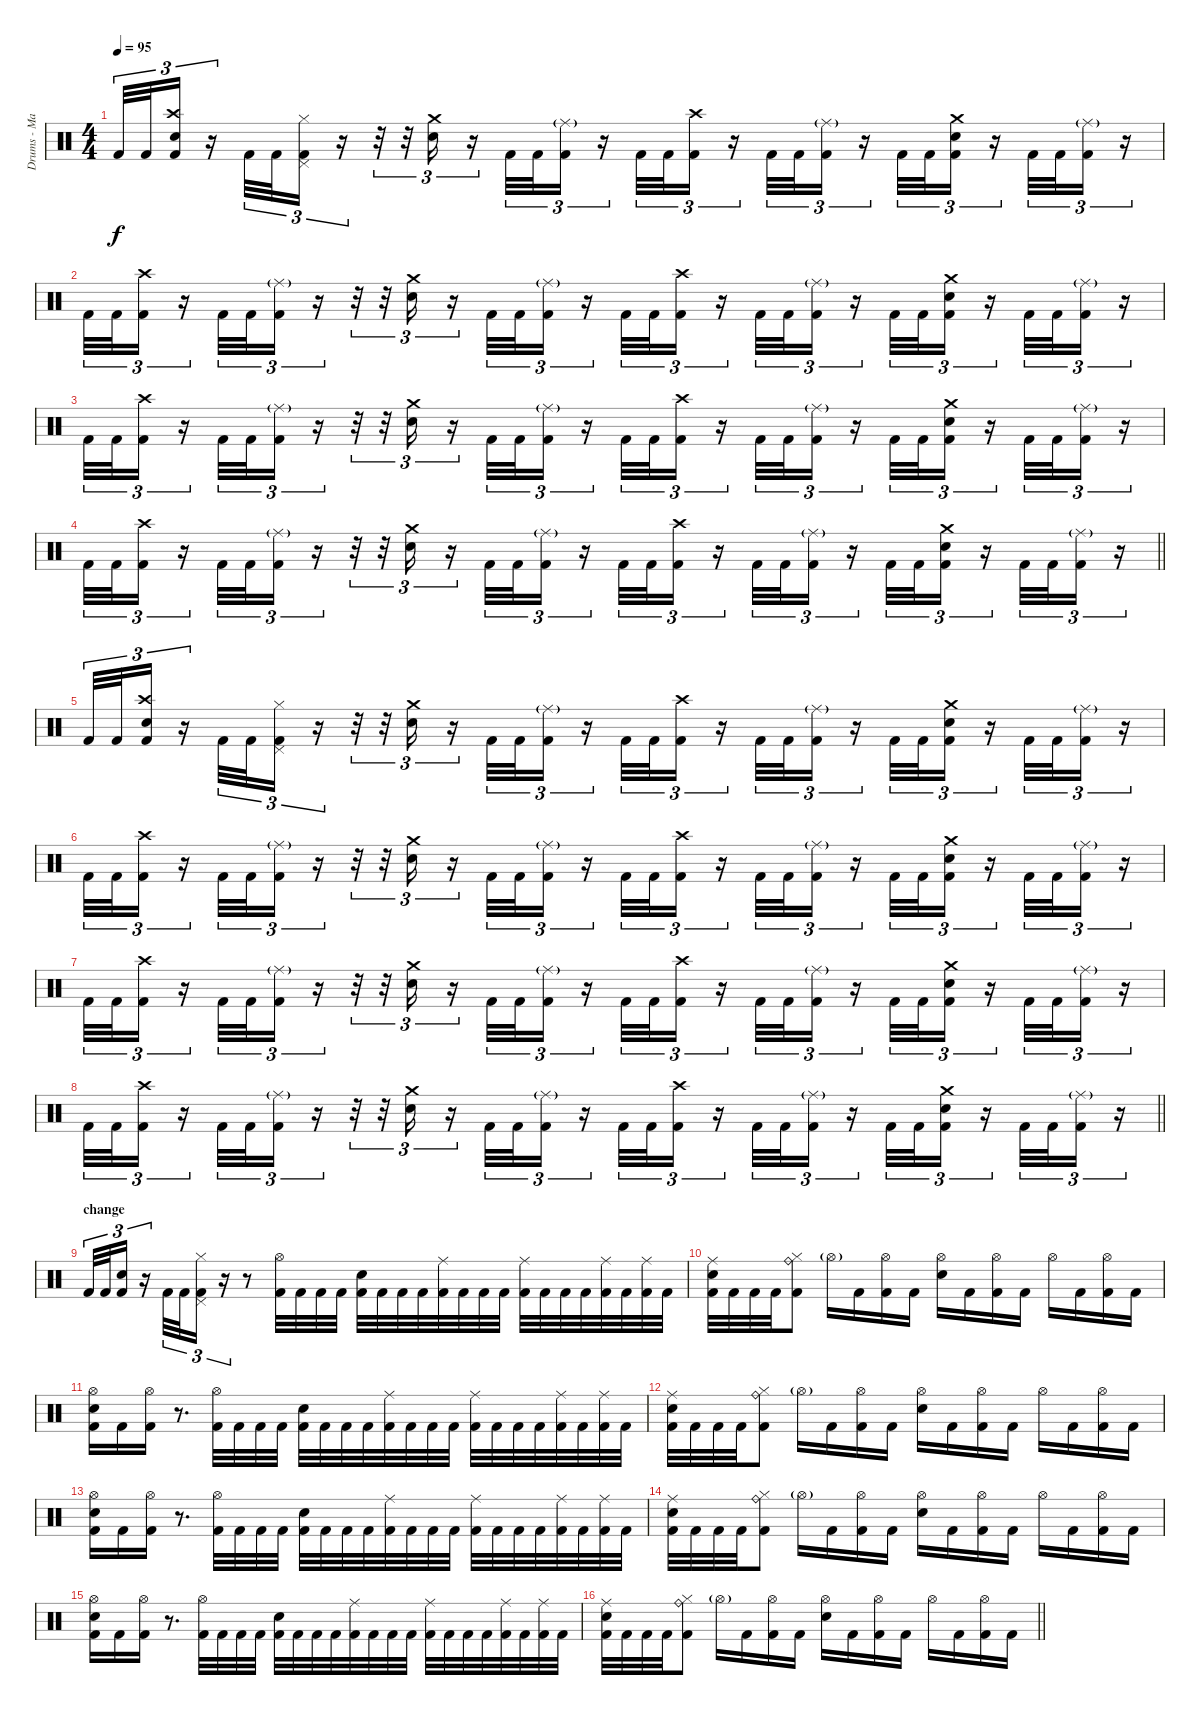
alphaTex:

\track ("Drums - Mario Duplantier" "Drums - Ma") {instrument percussion}
\staff {score}
\articulation defaults
\ts (4 4)
\tempo 95
\clef neutral
\ks c "Kick (hit) 2".32{tu (3 2) dy f} "Kick (hit) 2".32{tu (3 2)}
("Crash high (hit)" "Electric Snare (hit)" "Kick (hit) 2").16{tu (3 2)} r.16{tu (3 2)} "Kick (hit) 2".32{tu (3 2)} "Kick (hit) 2".32{tu (3 2)} ("Pedal Hi-Hat (hit)" "Hi-Hat (closed)" "Kick (hit) 2").16{tu (3 2)} r.16{tu (3 2)} r.32{tu (3 2)} r.32{tu (3 2)} ("Crash medium (hit)" "Electric Snare (hit)").16{tu (3 2)} r.16{tu (3 2)} "Kick (hit) 2".32{tu (3 2)} "Kick (hit) 2".32{tu (3 2)} ("Ride (middle)"{g} "Kick (hit) 2").16{tu (3 2)} r.16{tu (3 2)} "Kick (hit) 2".32{tu (3 2)} "Kick (hit) 2".32{tu (3 2)} ("Crash high (hit)" "Kick (hit) 2").16{tu (3 2)} r.16{tu (3 2)} "Kick (hit) 2".32{tu (3 2)} "Kick (hit) 2".32{tu (3 2)} ("Ride (middle)"{g} "Kick (hit) 2").16{tu (3 2)} r.16{tu (3 2)} "Kick (hit) 2".32{tu (3 2)} "Kick (hit) 2".32{tu (3 2)} ("Crash medium (hit)" "Electric Snare (hit)" "Kick (hit) 2").16{tu (3 2)} r.16{tu (3 2)} "Kick (hit) 2".32{tu (3 2)} "Kick (hit) 2".32{tu (3 2)} ("Ride (middle)"{g} "Kick (hit) 2").16{tu (3 2)} r.16{tu (3 2)} |
"Kick (hit) 2".32{tu (3 2)} "Kick (hit) 2".32{tu (3 2)} ("Crash high (hit)" "Kick (hit) 2").16{tu (3 2)} r.16{tu (3 2)} "Kick (hit) 2".32{tu (3 2)} "Kick (hit) 2".32{tu (3 2)} ("Ride (middle)"{g} "Kick (hit) 2").16{tu (3 2)} r.16{tu (3 2)} r.32{tu (3 2)} r.32{tu (3 2)} ("Crash medium (hit)" "Electric Snare (hit)").16{tu (3 2)} r.16{tu (3 2)} "Kick (hit) 2".32{tu (3 2)} "Kick (hit) 2".32{tu (3 2)} ("Ride (middle)"{g} "Kick (hit) 2").16{tu (3 2)} r.16{tu (3 2)} "Kick (hit) 2".32{tu (3 2)} "Kick (hit) 2".32{tu (3 2)} ("Crash high (hit)" "Kick (hit) 2").16{tu (3 2)} r.16{tu (3 2)} "Kick (hit) 2".32{tu (3 2)} "Kick (hit) 2".32{tu (3 2)} ("Ride (middle)"{g} "Kick (hit) 2").16{tu (3 2)} r.16{tu (3 2)} "Kick (hit) 2".32{tu (3 2)} "Kick (hit) 2".32{tu (3 2)} ("Crash medium (hit)" "Electric Snare (hit)" "Kick (hit) 2").16{tu (3 2)} r.16{tu (3 2)} "Kick (hit) 2".32{tu (3 2)} "Kick (hit) 2".32{tu (3 2)} ("Ride (middle)"{g} "Kick (hit) 2").16{tu (3 2)} r.16{tu (3 2)} |
"Kick (hit) 2".32{tu (3 2)} "Kick (hit) 2".32{tu (3 2)} ("Crash high (hit)" "Kick (hit) 2").16{tu (3 2)} r.16{tu (3 2)} "Kick (hit) 2".32{tu (3 2)} "Kick (hit) 2".32{tu (3 2)} ("Ride (middle)"{g} "Kick (hit) 2").16{tu (3 2)} r.16{tu (3 2)} r.32{tu (3 2)} r.32{tu (3 2)} ("Crash medium (hit)" "Electric Snare (hit)").16{tu (3 2)} r.16{tu (3 2)} "Kick (hit) 2".32{tu (3 2)} "Kick (hit) 2".32{tu (3 2)} ("Ride (middle)"{g} "Kick (hit) 2").16{tu (3 2)} r.16{tu (3 2)} "Kick (hit) 2".32{tu (3 2)} "Kick (hit) 2".32{tu (3 2)} ("Crash high (hit)" "Kick (hit) 2").16{tu (3 2)} r.16{tu (3 2)} "Kick (hit) 2".32{tu (3 2)} "Kick (hit) 2".32{tu (3 2)} ("Ride (middle)"{g} "Kick (hit) 2").16{tu (3 2)} r.16{tu (3 2)} "Kick (hit) 2".32{tu (3 2)} "Kick (hit) 2".32{tu (3 2)} ("Crash medium (hit)" "Electric Snare (hit)" "Kick (hit) 2").16{tu (3 2)} r.16{tu (3 2)} "Kick (hit) 2".32{tu (3 2)} "Kick (hit) 2".32{tu (3 2)} ("Ride (middle)"{g} "Kick (hit) 2").16{tu (3 2)} r.16{tu (3 2)} |
\barLineRight lightlight "Kick (hit) 2".32{tu (3 2)} "Kick (hit) 2".32{tu (3 2)}
("Crash high (hit)" "Kick (hit) 2").16{tu (3 2)} r.16{tu (3 2)} "Kick (hit) 2".32{tu (3 2)} "Kick (hit) 2".32{tu (3 2)} ("Ride (middle)"{g} "Kick (hit) 2").16{tu (3 2)} r.16{tu (3 2)} r.32{tu (3 2)} r.32{tu (3 2)} ("Crash medium (hit)" "Electric Snare (hit)").16{tu (3 2)} r.16{tu (3 2)} "Kick (hit) 2".32{tu (3 2)} "Kick (hit) 2".32{tu (3 2)} ("Ride (middle)"{g} "Kick (hit) 2").16{tu (3 2)} r.16{tu (3 2)} "Kick (hit) 2".32{tu (3 2)} "Kick (hit) 2".32{tu (3 2)} ("Crash high (hit)" "Kick (hit) 2").16{tu (3 2)} r.16{tu (3 2)} "Kick (hit) 2".32{tu (3 2)} "Kick (hit) 2".32{tu (3 2)} ("Ride (middle)"{g} "Kick (hit) 2").16{tu (3 2)} r.16{tu (3 2)} "Kick (hit) 2".32{tu (3 2)} "Kick (hit) 2".32{tu (3 2)} ("Crash medium (hit)" "Electric Snare (hit)" "Kick (hit) 2").16{tu (3 2)} r.16{tu (3 2)} "Kick (hit) 2".32{tu (3 2)} "Kick (hit) 2".32{tu (3 2)} ("Ride (middle)"{g} "Kick (hit) 2").16{tu (3 2)} r.16{tu (3 2)} |
"Kick (hit) 2".32{tu (3 2)} "Kick (hit) 2".32{tu (3 2)} ("Crash high (hit)" "Electric Snare (hit)" "Kick (hit) 2").16{tu (3 2)} r.16{tu (3 2)} "Kick (hit) 2".32{tu (3 2)} "Kick (hit) 2".32{tu (3 2)} ("Pedal Hi-Hat (hit)" "Hi-Hat (closed)" "Kick (hit) 2").16{tu (3 2)} r.16{tu (3 2)} r.32{tu (3 2)} r.32{tu (3 2)} ("Crash medium (hit)" "Electric Snare (hit)").16{tu (3 2)} r.16{tu (3 2)} "Kick (hit) 2".32{tu (3 2)} "Kick (hit) 2".32{tu (3 2)} ("Ride (middle)"{g} "Kick (hit) 2").16{tu (3 2)} r.16{tu (3 2)} "Kick (hit) 2".32{tu (3 2)} "Kick (hit) 2".32{tu (3 2)} ("Crash high (hit)" "Kick (hit) 2").16{tu (3 2)} r.16{tu (3 2)} "Kick (hit) 2".32{tu (3 2)} "Kick (hit) 2".32{tu (3 2)} ("Ride (middle)"{g} "Kick (hit) 2").16{tu (3 2)} r.16{tu (3 2)} "Kick (hit) 2".32{tu (3 2)} "Kick (hit) 2".32{tu (3 2)} ("Crash medium (hit)" "Electric Snare (hit)" "Kick (hit) 2").16{tu (3 2)} r.16{tu (3 2)} "Kick (hit) 2".32{tu (3 2)} "Kick (hit) 2".32{tu (3 2)} ("Ride (middle)"{g} "Kick (hit) 2").16{tu (3 2)} r.16{tu (3 2)} |
"Kick (hit) 2".32{tu (3 2)} "Kick (hit) 2".32{tu (3 2)} ("Crash high (hit)" "Kick (hit) 2").16{tu (3 2)} r.16{tu (3 2)} "Kick (hit) 2".32{tu (3 2)} "Kick (hit) 2".32{tu (3 2)} ("Ride (middle)"{g} "Kick (hit) 2").16{tu (3 2)} r.16{tu (3 2)} r.32{tu (3 2)} r.32{tu (3 2)} ("Crash medium (hit)" "Electric Snare (hit)").16{tu (3 2)} r.16{tu (3 2)} "Kick (hit) 2".32{tu (3 2)} "Kick (hit) 2".32{tu (3 2)} ("Ride (middle)"{g} "Kick (hit) 2").16{tu (3 2)} r.16{tu (3 2)} "Kick (hit) 2".32{tu (3 2)} "Kick (hit) 2".32{tu (3 2)} ("Crash high (hit)" "Kick (hit) 2").16{tu (3 2)} r.16{tu (3 2)} "Kick (hit) 2".32{tu (3 2)} "Kick (hit) 2".32{tu (3 2)} ("Ride (middle)"{g} "Kick (hit) 2").16{tu (3 2)} r.16{tu (3 2)} "Kick (hit) 2".32{tu (3 2)} "Kick (hit) 2".32{tu (3 2)} ("Crash medium (hit)" "Electric Snare (hit)" "Kick (hit) 2").16{tu (3 2)} r.16{tu (3 2)} "Kick (hit) 2".32{tu (3 2)} "Kick (hit) 2".32{tu (3 2)} ("Ride (middle)"{g} "Kick (hit) 2").16{tu (3 2)} r.16{tu (3 2)} |
"Kick (hit) 2".32{tu (3 2)} "Kick (hit) 2".32{tu (3 2)} ("Crash high (hit)" "Kick (hit) 2").16{tu (3 2)} r.16{tu (3 2)} "Kick (hit) 2".32{tu (3 2)} "Kick (hit) 2".32{tu (3 2)} ("Ride (middle)"{g} "Kick (hit) 2").16{tu (3 2)} r.16{tu (3 2)} r.32{tu (3 2)} r.32{tu (3 2)} ("Crash medium (hit)" "Electric Snare (hit)").16{tu (3 2)} r.16{tu (3 2)} "Kick (hit) 2".32{tu (3 2)} "Kick (hit) 2".32{tu (3 2)} ("Ride (middle)"{g} "Kick (hit) 2").16{tu (3 2)} r.16{tu (3 2)} "Kick (hit) 2".32{tu (3 2)} "Kick (hit) 2".32{tu (3 2)} ("Crash high (hit)" "Kick (hit) 2").16{tu (3 2)} r.16{tu (3 2)} "Kick (hit) 2".32{tu (3 2)} "Kick (hit) 2".32{tu (3 2)} ("Ride (middle)"{g} "Kick (hit) 2").16{tu (3 2)} r.16{tu (3 2)} "Kick (hit) 2".32{tu (3 2)} "Kick (hit) 2".32{tu (3 2)} ("Crash medium (hit)" "Electric Snare (hit)" "Kick (hit) 2").16{tu (3 2)} r.16{tu (3 2)} "Kick (hit) 2".32{tu (3 2)} "Kick (hit) 2".32{tu (3 2)} ("Ride (middle)"{g} "Kick (hit) 2").16{tu (3 2)} r.16{tu (3 2)} |
\barLineRight lightlight "Kick (hit) 2".32{tu (3 2)} "Kick (hit) 2".32{tu (3 2)}
("Crash high (hit)" "Kick (hit) 2").16{tu (3 2)} r.16{tu (3 2)} "Kick (hit) 2".32{tu (3 2)} "Kick (hit) 2".32{tu (3 2)} ("Ride (middle)"{g} "Kick (hit) 2").16{tu (3 2)} r.16{tu (3 2)} r.32{tu (3 2)} r.32{tu (3 2)} ("Crash medium (hit)" "Electric Snare (hit)").16{tu (3 2)} r.16{tu (3 2)} "Kick (hit) 2".32{tu (3 2)} "Kick (hit) 2".32{tu (3 2)} ("Ride (middle)"{g} "Kick (hit) 2").16{tu (3 2)} r.16{tu (3 2)} "Kick (hit) 2".32{tu (3 2)} "Kick (hit) 2".32{tu (3 2)} ("Crash high (hit)" "Kick (hit) 2").16{tu (3 2)} r.16{tu (3 2)} "Kick (hit) 2".32{tu (3 2)} "Kick (hit) 2".32{tu (3 2)} ("Ride (middle)"{g} "Kick (hit) 2").16{tu (3 2)} r.16{tu (3 2)} "Kick (hit) 2".32{tu (3 2)} "Kick (hit) 2".32{tu (3 2)} ("Crash medium (hit)" "Electric Snare (hit)" "Kick (hit) 2").16{tu (3 2)} r.16{tu (3 2)} "Kick (hit) 2".32{tu (3 2)} "Kick (hit) 2".32{tu (3 2)} ("Ride (middle)"{g} "Kick (hit) 2").16{tu (3 2)} r.16{tu (3 2)} |
\section ("" "change")
"Kick (hit) 2".32{tu (3 2)} "Kick (hit) 2".32{tu (3 2)} ("Electric Snare (hit)" "Kick (hit) 2").16{tu (3 2)} r.16{tu (3 2)} "Kick (hit) 2".32{tu (3 2)} "Kick (hit) 2".32{tu (3 2)} ("Pedal Hi-Hat (hit)" "Hi-Hat (closed)" "Kick (hit) 2").16{tu (3 2)} r.16{tu (3 2)} r.8 ("Hi-Hat (open)" "Kick (hit) 2").32 "Kick (hit) 2".32 "Kick (hit) 2".32 "Kick (hit) 2".32 ("Electric Snare (hit)" "Kick (hit) 2").32 "Kick (hit) 2".32 "Kick (hit) 2".32 "Kick (hit) 2".32 ("Ride (middle)" "Kick (hit) 2").32 "Kick (hit) 2".32 "Kick (hit) 2".32 "Kick (hit) 2".32 ("Ride (middle)" "Kick (hit) 2").32 "Kick (hit) 2".32 "Kick (hit) 2".32 "Kick (hit) 2".32 ("Ride (middle)" "Kick (hit) 2").32 "Kick (hit) 2".32 ("Ride (middle)" "Kick (hit) 2").32 "Kick (hit) 2".32 |
("Ride (middle)" "Electric Snare (hit)" "Kick (hit) 2").32 "Kick (hit) 2".32 "Kick (hit) 2".32 "Kick (hit) 2".32 ("Ride (bell)" "Hi-Hat (closed)" "Kick (hit) 2").8 "Hi-Hat (open)"{g}.16 "Kick (hit) 2".16 ("Hi-Hat (open)" "Kick (hit) 2").16 "Kick (hit) 2".16 ("Hi-Hat (open)" "Electric Snare (hit)").16 "Kick (hit) 2".16 ("Hi-Hat (open)" "Kick (hit) 2").16 "Kick (hit) 2".16 "Hi-Hat (open)".16 "Kick (hit) 2".16 ("Hi-Hat (open)" "Kick (hit) 2").16 "Kick (hit) 2".16 |
("Hi-Hat (open)" "Electric Snare (hit)" "Kick (hit) 2").16 "Kick (hit) 2".16 ("Hi-Hat (open)" "Kick (hit) 2").16 r.8{d} ("Hi-Hat (open)" "Kick (hit) 2").32 "Kick (hit) 2".32 "Kick (hit) 2".32 "Kick (hit) 2".32 ("Electric Snare (hit)" "Kick (hit) 2").32 "Kick (hit) 2".32 "Kick (hit) 2".32 "Kick (hit) 2".32 ("Ride (middle)" "Kick (hit) 2").32 "Kick (hit) 2".32 "Kick (hit) 2".32 "Kick (hit) 2".32 ("Ride (middle)" "Kick (hit) 2").32 "Kick (hit) 2".32 "Kick (hit) 2".32 "Kick (hit) 2".32 ("Ride (middle)" "Kick (hit) 2").32 "Kick (hit) 2".32 ("Ride (middle)" "Kick (hit) 2").32 "Kick (hit) 2".32 |
("Ride (middle)" "Electric Snare (hit)" "Kick (hit) 2").32 "Kick (hit) 2".32 "Kick (hit) 2".32 "Kick (hit) 2".32 ("Ride (bell)" "Hi-Hat (closed)" "Kick (hit) 2").8 "Hi-Hat (open)"{g}.16 "Kick (hit) 2".16 ("Hi-Hat (open)" "Kick (hit) 2").16 "Kick (hit) 2".16 ("Hi-Hat (open)" "Electric Snare (hit)").16 "Kick (hit) 2".16 ("Hi-Hat (open)" "Kick (hit) 2").16 "Kick (hit) 2".16 "Hi-Hat (open)".16 "Kick (hit) 2".16 ("Hi-Hat (open)" "Kick (hit) 2").16 "Kick (hit) 2".16 |
("Hi-Hat (open)" "Electric Snare (hit)" "Kick (hit) 2").16 "Kick (hit) 2".16 ("Hi-Hat (open)" "Kick (hit) 2").16 r.8{d} ("Hi-Hat (open)" "Kick (hit) 2").32 "Kick (hit) 2".32 "Kick (hit) 2".32 "Kick (hit) 2".32 ("Electric Snare (hit)" "Kick (hit) 2").32 "Kick (hit) 2".32 "Kick (hit) 2".32 "Kick (hit) 2".32 ("Ride (middle)" "Kick (hit) 2").32 "Kick (hit) 2".32 "Kick (hit) 2".32 "Kick (hit) 2".32 ("Ride (middle)" "Kick (hit) 2").32 "Kick (hit) 2".32 "Kick (hit) 2".32 "Kick (hit) 2".32 ("Ride (middle)" "Kick (hit) 2").32 "Kick (hit) 2".32 ("Ride (middle)" "Kick (hit) 2").32 "Kick (hit) 2".32 |
("Ride (middle)" "Electric Snare (hit)" "Kick (hit) 2").32 "Kick (hit) 2".32 "Kick (hit) 2".32 "Kick (hit) 2".32 ("Ride (bell)" "Hi-Hat (closed)" "Kick (hit) 2").8 "Hi-Hat (open)"{g}.16 "Kick (hit) 2".16 ("Hi-Hat (open)" "Kick (hit) 2").16 "Kick (hit) 2".16 ("Hi-Hat (open)" "Electric Snare (hit)").16 "Kick (hit) 2".16 ("Hi-Hat (open)" "Kick (hit) 2").16 "Kick (hit) 2".16 "Hi-Hat (open)".16 "Kick (hit) 2".16 ("Hi-Hat (open)" "Kick (hit) 2").16 "Kick (hit) 2".16 |
("Hi-Hat (open)" "Electric Snare (hit)" "Kick (hit) 2").16 "Kick (hit) 2".16 ("Hi-Hat (open)" "Kick (hit) 2").16 r.8{d} ("Hi-Hat (open)" "Kick (hit) 2").32 "Kick (hit) 2".32 "Kick (hit) 2".32 "Kick (hit) 2".32 ("Electric Snare (hit)" "Kick (hit) 2").32 "Kick (hit) 2".32 "Kick (hit) 2".32 "Kick (hit) 2".32 ("Ride (middle)" "Kick (hit) 2").32 "Kick (hit) 2".32 "Kick (hit) 2".32 "Kick (hit) 2".32 ("Ride (middle)" "Kick (hit) 2").32 "Kick (hit) 2".32 "Kick (hit) 2".32 "Kick (hit) 2".32 ("Ride (middle)" "Kick (hit) 2").32 "Kick (hit) 2".32 ("Ride (middle)" "Kick (hit) 2").32 "Kick (hit) 2".32 |
\barLineRight lightlight
("Ride (middle)" "Electric Snare (hit)" "Kick (hit) 2").32 "Kick (hit) 2".32 "Kick (hit) 2".32 "Kick (hit) 2".32 ("Ride (bell)" "Hi-Hat (closed)" "Kick (hit) 2").8 "Hi-Hat (open)"{g}.16 "Kick (hit) 2".16 ("Hi-Hat (open)" "Kick (hit) 2").16 "Kick (hit) 2".16 ("Hi-Hat (open)" "Electric Snare (hit)").16 "Kick (hit) 2".16 ("Hi-Hat (open)" "Kick (hit) 2").16 "Kick (hit) 2".16 "Hi-Hat (open)".16 "Kick (hit) 2".16 ("Hi-Hat (open)" "Kick (hit) 2").16 "Kick (hit) 2".16
